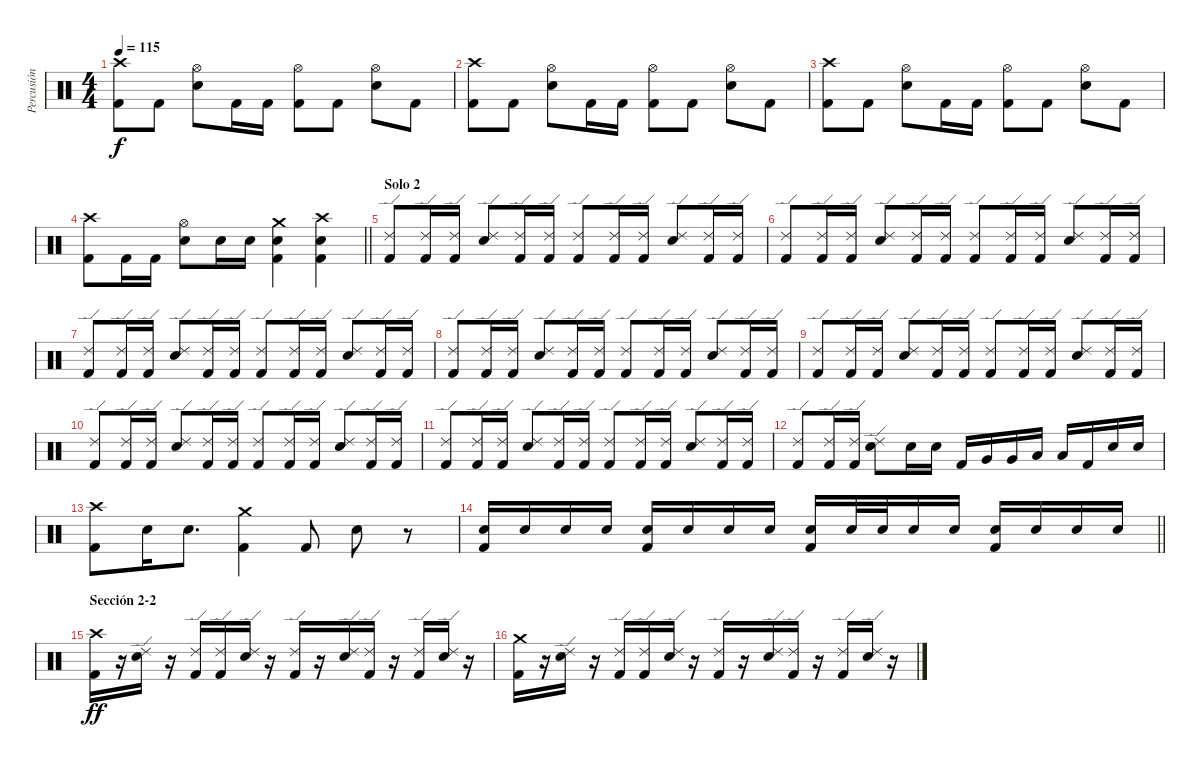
\track ("Percusión" "Percusión") {instrument percussion}
\staff {score}
\articulation defaults
\ts (4 4)
\tempo 115
\clef neutral
\ks c
("Crash high (hit)" "Kick (hit) 2").8{dy f} "Kick (hit) 2".8 ("Hi-Hat (open)" "Snare (hit) 2").8 "Kick (hit) 2".16 "Kick (hit) 2".16 ("Hi-Hat (open)" "Kick (hit) 2").8 "Kick (hit) 2".8 ("Hi-Hat (open)" "Snare (hit) 2").8 "Kick (hit) 2".8 |
("Crash high (hit)" "Kick (hit) 2").8 "Kick (hit) 2".8 ("Hi-Hat (open)" "Snare (hit) 2").8 "Kick (hit) 2".16 "Kick (hit) 2".16 ("Hi-Hat (open)" "Kick (hit) 2").8 "Kick (hit) 2".8 ("Hi-Hat (open)" "Snare (hit) 2").8 "Kick (hit) 2".8 |
("Crash high (hit)" "Kick (hit) 2").8 "Kick (hit) 2".8 ("Hi-Hat (open)" "Snare (hit) 2").8 "Kick (hit) 2".16 "Kick (hit) 2".16 ("Hi-Hat (open)" "Kick (hit) 2").8 "Kick (hit) 2".8 ("Hi-Hat (open)" "Snare (hit) 2").8 "Kick (hit) 2".8 |
\barLineRight lightlight
("Crash high (hit)" "Kick (hit) 2").8 "Kick (hit) 2".16 "Kick (hit) 2".16 ("Hi-Hat (open)" "Snare (hit) 2").8 "Snare (hit) 2".16 "Snare (hit) 2".16 ("Crash medium (hit)" "Snare (hit) 2" "Kick (hit) 2").4 ("Crash high (hit)" "Snare (hit) 2" "Kick (hit) 2").4 |
\section ("" "Solo 2")
("Ride (edge) 2" "Kick (hit) 2").8 ("Ride (edge) 2" "Kick (hit) 2").16 ("Ride (edge) 2" "Kick (hit) 2").16 ("Ride (edge) 2" "Snare (hit) 2").8 ("Ride (edge) 2" "Kick (hit) 2").16 ("Ride (edge) 2" "Kick (hit) 2").16 ("Ride (edge) 2" "Kick (hit) 2").8 ("Ride (edge) 2" "Kick (hit) 2").16 ("Ride (edge) 2" "Kick (hit) 2").16 ("Ride (edge) 2" "Snare (hit) 2").8 ("Ride (edge) 2" "Kick (hit) 2").16 ("Ride (edge) 2" "Kick (hit) 2").16 |
("Ride (edge) 2" "Kick (hit) 2").8 ("Ride (edge) 2" "Kick (hit) 2").16 ("Ride (edge) 2" "Kick (hit) 2").16 ("Ride (edge) 2" "Snare (hit) 2").8 ("Ride (edge) 2" "Kick (hit) 2").16 ("Ride (edge) 2" "Kick (hit) 2").16 ("Ride (edge) 2" "Kick (hit) 2").8 ("Ride (edge) 2" "Kick (hit) 2").16 ("Ride (edge) 2" "Kick (hit) 2").16 ("Ride (edge) 2" "Snare (hit) 2").8 ("Ride (edge) 2" "Kick (hit) 2").16 ("Ride (edge) 2" "Kick (hit) 2").16 |
("Ride (edge) 2" "Kick (hit) 2").8 ("Ride (edge) 2" "Kick (hit) 2").16 ("Ride (edge) 2" "Kick (hit) 2").16 ("Ride (edge) 2" "Snare (hit) 2").8 ("Ride (edge) 2" "Kick (hit) 2").16 ("Ride (edge) 2" "Kick (hit) 2").16 ("Ride (edge) 2" "Kick (hit) 2").8 ("Ride (edge) 2" "Kick (hit) 2").16 ("Ride (edge) 2" "Kick (hit) 2").16 ("Ride (edge) 2" "Snare (hit) 2").8 ("Ride (edge) 2" "Kick (hit) 2").16 ("Ride (edge) 2" "Kick (hit) 2").16 |
("Ride (edge) 2" "Kick (hit) 2").8 ("Ride (edge) 2" "Kick (hit) 2").16 ("Ride (edge) 2" "Kick (hit) 2").16 ("Ride (edge) 2" "Snare (hit) 2").8 ("Ride (edge) 2" "Kick (hit) 2").16 ("Ride (edge) 2" "Kick (hit) 2").16 ("Ride (edge) 2" "Kick (hit) 2").8 ("Ride (edge) 2" "Kick (hit) 2").16 ("Ride (edge) 2" "Kick (hit) 2").16 ("Ride (edge) 2" "Snare (hit) 2").8 ("Ride (edge) 2" "Kick (hit) 2").16 ("Ride (edge) 2" "Kick (hit) 2").16 |
("Ride (edge) 2" "Kick (hit) 2").8 ("Ride (edge) 2" "Kick (hit) 2").16 ("Ride (edge) 2" "Kick (hit) 2").16 ("Ride (edge) 2" "Snare (hit) 2").8 ("Ride (edge) 2" "Kick (hit) 2").16 ("Ride (edge) 2" "Kick (hit) 2").16 ("Ride (edge) 2" "Kick (hit) 2").8 ("Ride (edge) 2" "Kick (hit) 2").16 ("Ride (edge) 2" "Kick (hit) 2").16 ("Ride (edge) 2" "Snare (hit) 2").8 ("Ride (edge) 2" "Kick (hit) 2").16 ("Ride (edge) 2" "Kick (hit) 2").16 |
("Ride (edge) 2" "Kick (hit) 2").8 ("Ride (edge) 2" "Kick (hit) 2").16 ("Ride (edge) 2" "Kick (hit) 2").16 ("Ride (edge) 2" "Snare (hit) 2").8 ("Ride (edge) 2" "Kick (hit) 2").16 ("Ride (edge) 2" "Kick (hit) 2").16 ("Ride (edge) 2" "Kick (hit) 2").8 ("Ride (edge) 2" "Kick (hit) 2").16 ("Ride (edge) 2" "Kick (hit) 2").16 ("Ride (edge) 2" "Snare (hit) 2").8 ("Ride (edge) 2" "Kick (hit) 2").16 ("Ride (edge) 2" "Kick (hit) 2").16 |
("Ride (edge) 2" "Kick (hit) 2").8 ("Ride (edge) 2" "Kick (hit) 2").16 ("Ride (edge) 2" "Kick (hit) 2").16 ("Ride (edge) 2" "Snare (hit) 2").8 ("Ride (edge) 2" "Kick (hit) 2").16 ("Ride (edge) 2" "Kick (hit) 2").16 ("Ride (edge) 2" "Kick (hit) 2").8 ("Ride (edge) 2" "Kick (hit) 2").16 ("Ride (edge) 2" "Kick (hit) 2").16 ("Ride (edge) 2" "Snare (hit) 2").8 ("Ride (edge) 2" "Kick (hit) 2").16 ("Ride (edge) 2" "Kick (hit) 2").16 |
("Ride (edge) 2" "Kick (hit) 2").8 ("Ride (edge) 2" "Kick (hit) 2").16 ("Ride (edge) 2" "Kick (hit) 2").16 ("Ride (edge) 2" "Snare (hit) 2").8 "Snare (hit) 2".16 "Snare (hit) 2".16 "Kick (hit) 2".16 "Very Low Tom (hit)".16 "Very Low Tom (hit)".16 "Low Floor Tom (hit)".16 "Low Floor Tom (hit)".16 "Kick (hit) 2".16 "Snare (hit) 2".16 "Snare (hit) 2".16 |
("Crash high (hit)" "Kick (hit) 2").8 "Snare (hit) 2".16 "Snare (hit) 2".8{d} ("Crash medium (hit)" "Kick (hit) 2").4 "Kick (hit) 2".8 "Snare (hit) 2".8 r.8 |
\barLineRight lightlight
("Snare (hit) 2" "Kick (hit) 2").16 "Snare (hit) 2".16 "Snare (hit) 2".16 "Snare (hit) 2".16 ("Snare (hit) 2" "Kick (hit) 2").16 "Snare (hit) 2".16 "Snare (hit) 2".16 "Snare (hit) 2".16 ("Snare (hit) 2" "Kick (hit) 2").16 "Snare (hit) 2".32 "Snare (hit) 2".32 "Snare (hit) 2".16 "Snare (hit) 2".16 ("Snare (hit) 2" "Kick (hit) 2").16 "Snare (hit) 2".16 "Snare (hit) 2".16 "Snare (hit) 2".16 |
\section ("" "Sección 2-2")
("Crash high (hit)" "Kick (hit) 2").16{dy ff} r.16 ("Ride (edge) 2" "Snare (hit) 2").16 r.16 ("Ride (edge) 2" "Kick (hit) 2").16 ("Ride (edge) 2" "Kick (hit) 2").16 ("Ride (edge) 2" "Snare (hit) 2").16 r.16 ("Ride (edge) 2" "Kick (hit) 2").16 r.16 ("Ride (edge) 2" "Snare (hit) 2").16 ("Ride (edge) 2" "Kick (hit) 2").16 r.16 ("Ride (edge) 2" "Kick (hit) 2").16 ("Ride (edge) 2" "Snare (hit) 2").16 r.16 |
("Crash medium (hit)" "Kick (hit) 2").16 r.16 ("Ride (edge) 2" "Snare (hit) 2").16 r.16 ("Ride (edge) 2" "Kick (hit) 2").16 ("Ride (edge) 2" "Kick (hit) 2").16 ("Ride (edge) 2" "Snare (hit) 2").16 r.16 ("Ride (edge) 2" "Kick (hit) 2").16 r.16 ("Ride (edge) 2" "Snare (hit) 2").16 ("Ride (edge) 2" "Kick (hit) 2").16 r.16 ("Ride (edge) 2" "Kick (hit) 2").16 ("Ride (edge) 2" "Snare (hit) 2").16 r.16
